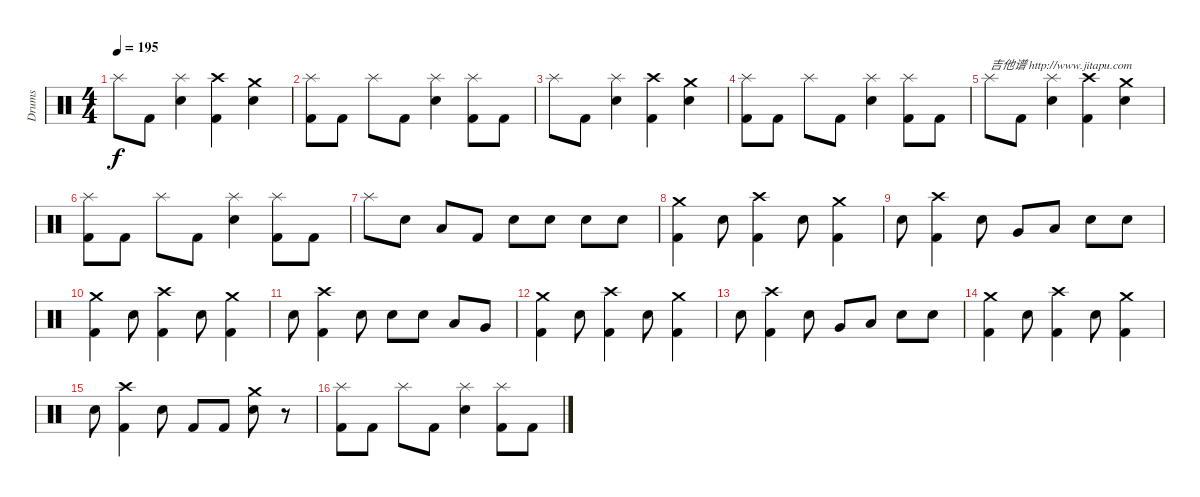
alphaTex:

\track ("Drums" "Drums") {instrument percussion}
\staff {score}
\articulation defaults
\ts (4 4)
\tempo 195
\clef neutral
\ks c "Splash (hit)".8{dy f} "Kick (hit) 2".8
("Splash (hit)" "Snare (hit) 2").4 ("Crash high (hit)" "Kick (hit) 2").4 ("Crash medium (hit)" "Snare (hit) 2").4 |
("Splash (hit)" "Kick (hit) 2").8 "Kick (hit) 2".8 "Splash (hit)".8 "Kick (hit) 2".8 ("Splash (hit)" "Snare (hit) 2").4 ("Splash (hit)" "Kick (hit) 2").8 "Kick (hit) 2".8 |
"Splash (hit)".8 "Kick (hit) 2".8 ("Splash (hit)" "Snare (hit) 2").4 ("Crash high (hit)" "Kick (hit) 2").4 ("Crash medium (hit)" "Snare (hit) 2").4 |
("Splash (hit)" "Kick (hit) 2").8 "Kick (hit) 2".8 "Splash (hit)".8 "Kick (hit) 2".8 ("Splash (hit)" "Snare (hit) 2").4 ("Splash (hit)" "Kick (hit) 2").8 "Kick (hit) 2".8 |
"Splash (hit)".8{txt "吉他谱 http://www.jitapu.com"} "Kick (hit) 2".8 ("Splash (hit)" "Snare (hit) 2").4 ("Crash high (hit)" "Kick (hit) 2").4 ("Crash medium (hit)" "Snare (hit) 2").4 |
("Splash (hit)" "Kick (hit) 2").8 "Kick (hit) 2".8 "Splash (hit)".8 "Kick (hit) 2".8 ("Splash (hit)" "Snare (hit) 2").4 ("Splash (hit)" "Kick (hit) 2").8 "Kick (hit) 2".8 |
"Splash (hit)".8 "Snare (hit) 2".8 "Low Tom (hit)".8 "Kick (hit) 2".8 "Snare (hit) 2".8 "Snare (hit) 2".8 "Snare (hit) 2".8 "Snare (hit) 2".8 |
("Crash medium (hit)" "Kick (hit) 2").4 "Snare (hit) 2".8 ("Crash high (hit)" "Kick (hit) 2").4 "Snare (hit) 2".8 ("Crash medium (hit)" "Kick (hit) 2").4 |
"Snare (hit) 2".8 ("Crash high (hit)" "Kick (hit) 2").4 "Snare (hit) 2".8 "Very Low Tom (hit)".8 "Low Tom (hit)".8 "Snare (hit) 2".8 "Snare (hit) 2".8 |
("Crash medium (hit)" "Kick (hit) 2").4 "Snare (hit) 2".8 ("Crash high (hit)" "Kick (hit) 2").4 "Snare (hit) 2".8 ("Crash medium (hit)" "Kick (hit) 2").4 |
"Snare (hit) 2".8 ("Crash high (hit)" "Kick (hit) 2").4 "Snare (hit) 2".8 "Snare (hit) 2".8 "Snare (hit) 2".8 "Low Tom (hit)".8 "Very Low Tom (hit)".8 |
("Crash medium (hit)" "Kick (hit) 2").4 "Snare (hit) 2".8 ("Crash high (hit)" "Kick (hit) 2").4 "Snare (hit) 2".8 ("Crash medium (hit)" "Kick (hit) 2").4 |
"Snare (hit) 2".8 ("Crash high (hit)" "Kick (hit) 2").4 "Snare (hit) 2".8 "Very Low Tom (hit)".8 "Low Tom (hit)".8 "Snare (hit) 2".8 "Snare (hit) 2".8 |
("Crash medium (hit)" "Kick (hit) 2").4 "Snare (hit) 2".8 ("Crash high (hit)" "Kick (hit) 2").4 "Snare (hit) 2".8 ("Crash medium (hit)" "Kick (hit) 2").4 |
"Snare (hit) 2".8 ("Crash high (hit)" "Kick (hit) 2").4 "Snare (hit) 2".8 "Kick (hit) 2".8 "Kick (hit) 2".8 ("Crash medium (hit)" "Snare (hit) 2").8 r.8 |
("Splash (hit)" "Kick (hit) 2").8 "Kick (hit) 2".8 "Splash (hit)".8 "Kick (hit) 2".8 ("Splash (hit)" "Snare (hit) 2").4 ("Splash (hit)" "Kick (hit) 2").8 "Kick (hit) 2".8
